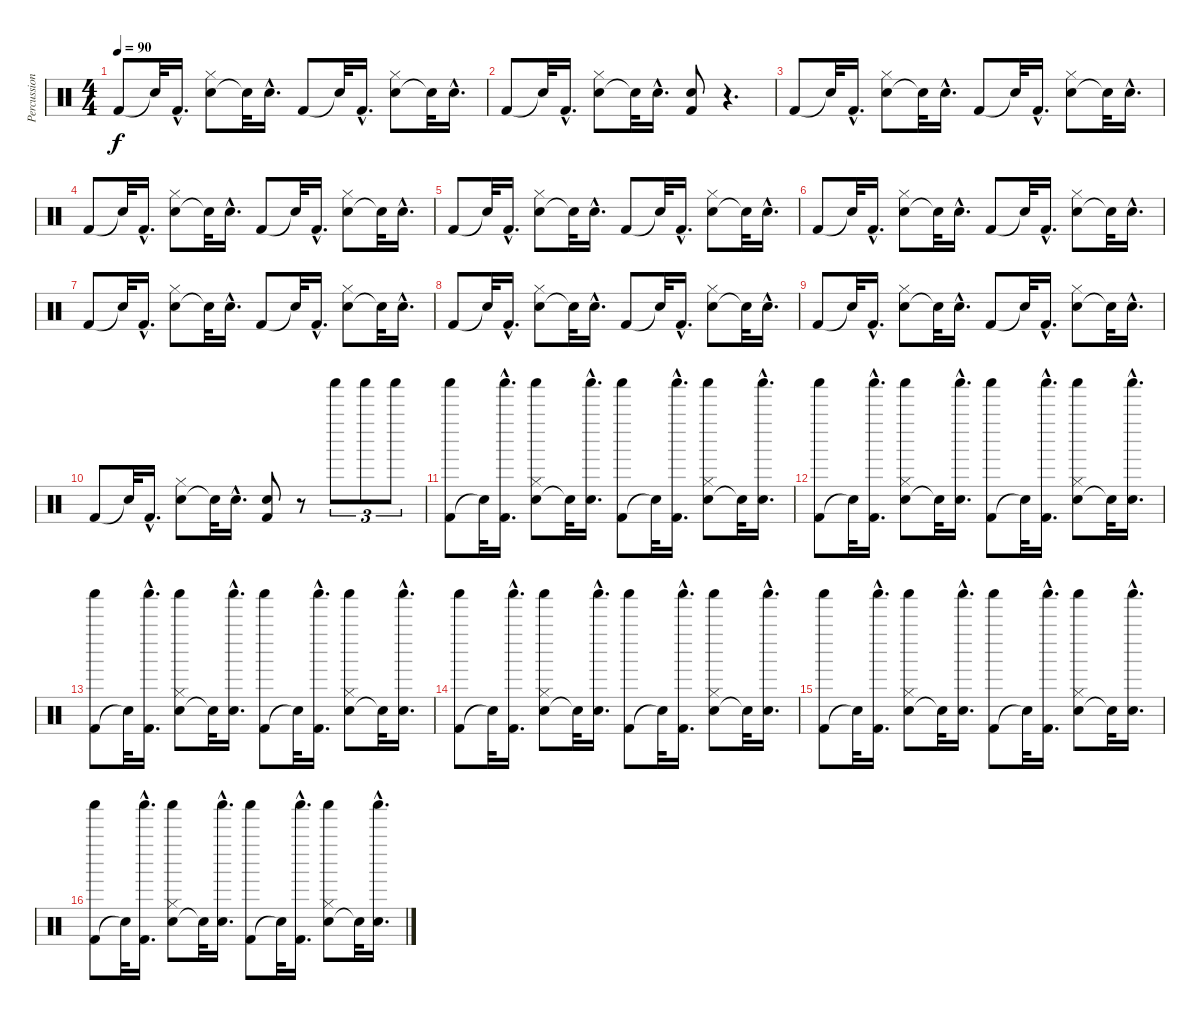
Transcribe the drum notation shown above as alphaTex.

\track ("Percussions" "Percussion") {instrument percussion}
\staff {score}
\articulation defaults
\ts (4 4)
\tempo 90
\clef neutral
\ks c "Kick (hit) 2".8{dy f} "Snare (hit)"{t}.32 "Kick (hit) 2"{hac}.16{d}
("Snare (hit) 2" "Hi-Hat (closed)").8 "Snare (hit)"{t}.32 "Snare (hit) 2"{hac}.16{d} "Kick (hit) 2".8 "Snare (hit)"{t}.32 "Kick (hit) 2"{hac}.16{d} ("Snare (hit) 2" "Hi-Hat (closed)").8 "Snare (hit)"{t}.32 "Snare (hit) 2"{hac}.16{d} |
"Kick (hit) 2".8 "Snare (hit)"{t}.32 "Kick (hit) 2"{hac}.16{d} ("Snare (hit) 2" "Hi-Hat (closed)").8 "Snare (hit)"{t}.32 "Snare (hit) 2"{hac}.16{d} ("Kick (hit) 2" "Snare (hit) 2").8 r.4{d} |
"Kick (hit) 2".8 "Snare (hit)"{t}.32 "Kick (hit) 2"{hac}.16{d} ("Snare (hit) 2" "Hi-Hat (closed)").8 "Snare (hit)"{t}.32 "Snare (hit) 2"{hac}.16{d} "Kick (hit) 2".8 "Snare (hit)"{t}.32 "Kick (hit) 2"{hac}.16{d} ("Snare (hit) 2" "Hi-Hat (closed)").8 "Snare (hit)"{t}.32 "Snare (hit) 2"{hac}.16{d} |
"Kick (hit) 2".8 "Snare (hit)"{t}.32 "Kick (hit) 2"{hac}.16{d} ("Snare (hit) 2" "Hi-Hat (closed)").8 "Snare (hit)"{t}.32 "Snare (hit) 2"{hac}.16{d} "Kick (hit) 2".8 "Snare (hit)"{t}.32 "Kick (hit) 2"{hac}.16{d} ("Snare (hit) 2" "Hi-Hat (closed)").8 "Snare (hit)"{t}.32 "Snare (hit) 2"{hac}.16{d} |
"Kick (hit) 2".8 "Snare (hit)"{t}.32 "Kick (hit) 2"{hac}.16{d} ("Snare (hit) 2" "Hi-Hat (closed)").8 "Snare (hit)"{t}.32 "Snare (hit) 2"{hac}.16{d} "Kick (hit) 2".8 "Snare (hit)"{t}.32 "Kick (hit) 2"{hac}.16{d} ("Snare (hit) 2" "Hi-Hat (closed)").8 "Snare (hit)"{t}.32 "Snare (hit) 2"{hac}.16{d} |
"Kick (hit) 2".8 "Snare (hit)"{t}.32 "Kick (hit) 2"{hac}.16{d} ("Snare (hit) 2" "Hi-Hat (closed)").8 "Snare (hit)"{t}.32 "Snare (hit) 2"{hac}.16{d} "Kick (hit) 2".8 "Snare (hit)"{t}.32 "Kick (hit) 2"{hac}.16{d} ("Snare (hit) 2" "Hi-Hat (closed)").8 "Snare (hit)"{t}.32 "Snare (hit) 2"{hac}.16{d} |
"Kick (hit) 2".8 "Snare (hit)"{t}.32 "Kick (hit) 2"{hac}.16{d} ("Snare (hit) 2" "Hi-Hat (closed)").8 "Snare (hit)"{t}.32 "Snare (hit) 2"{hac}.16{d} "Kick (hit) 2".8 "Snare (hit)"{t}.32 "Kick (hit) 2"{hac}.16{d} ("Snare (hit) 2" "Hi-Hat (closed)").8 "Snare (hit)"{t}.32 "Snare (hit) 2"{hac}.16{d} |
"Kick (hit) 2".8 "Snare (hit)"{t}.32 "Kick (hit) 2"{hac}.16{d} ("Snare (hit) 2" "Hi-Hat (closed)").8 "Snare (hit)"{t}.32 "Snare (hit) 2"{hac}.16{d} "Kick (hit) 2".8 "Snare (hit)"{t}.32 "Kick (hit) 2"{hac}.16{d} ("Snare (hit) 2" "Hi-Hat (closed)").8 "Snare (hit)"{t}.32 "Snare (hit) 2"{hac}.16{d} |
"Kick (hit) 2".8 "Snare (hit)"{t}.32 "Kick (hit) 2"{hac}.16{d} ("Snare (hit) 2" "Hi-Hat (closed)").8 "Snare (hit)"{t}.32 "Snare (hit) 2"{hac}.16{d} "Kick (hit) 2".8 "Snare (hit)"{t}.32 "Kick (hit) 2"{hac}.16{d} ("Snare (hit) 2" "Hi-Hat (closed)").8 "Snare (hit)"{t}.32 "Snare (hit) 2"{hac}.16{d} |
"Kick (hit) 2".8 "Snare (hit)"{t}.32 "Kick (hit) 2"{hac}.16{d} ("Snare (hit) 2" "Hi-Hat (closed)").8 "Snare (hit)"{t}.32 "Snare (hit) 2"{hac}.16{d} ("Kick (hit) 2" "Snare (hit) 2").8 r.8 "Shaker (hit)".8{tu (3 2)} "Shaker (hit)".8{tu (3 2)} "Shaker (hit)".8{tu (3 2)} |
("Kick (hit) 2" "Shaker (hit)").8 "Snare (hit)"{t}.32 ("Kick (hit) 2"{hac} "Shaker (hit)"{hac}).16{d} ("Snare (hit) 2" "Shaker (hit)" "Hi-Hat (closed)").8 "Snare (hit)"{t}.32 ("Snare (hit) 2"{hac} "Shaker (hit)"{hac}).16{d} ("Kick (hit) 2" "Shaker (hit)").8 "Snare (hit)"{t}.32 ("Kick (hit) 2"{hac} "Shaker (hit)"{hac}).16{d} ("Snare (hit) 2" "Shaker (hit)" "Hi-Hat (closed)").8 "Snare (hit)"{t}.32 ("Snare (hit) 2"{hac} "Shaker (hit)"{hac}).16{d} |
("Kick (hit) 2" "Shaker (hit)").8 "Snare (hit)"{t}.32 ("Kick (hit) 2"{hac} "Shaker (hit)"{hac}).16{d} ("Snare (hit) 2" "Shaker (hit)" "Hi-Hat (closed)").8 "Snare (hit)"{t}.32 ("Snare (hit) 2"{hac} "Shaker (hit)"{hac}).16{d} ("Kick (hit) 2" "Shaker (hit)").8 "Snare (hit)"{t}.32 ("Kick (hit) 2"{hac} "Shaker (hit)"{hac}).16{d} ("Snare (hit) 2" "Shaker (hit)" "Hi-Hat (closed)").8 "Snare (hit)"{t}.32 ("Snare (hit) 2"{hac} "Shaker (hit)"{hac}).16{d} |
("Kick (hit) 2" "Shaker (hit)").8 "Snare (hit)"{t}.32 ("Kick (hit) 2"{hac} "Shaker (hit)"{hac}).16{d} ("Snare (hit) 2" "Shaker (hit)" "Hi-Hat (closed)").8 "Snare (hit)"{t}.32 ("Snare (hit) 2"{hac} "Shaker (hit)"{hac}).16{d} ("Kick (hit) 2" "Shaker (hit)").8 "Snare (hit)"{t}.32 ("Kick (hit) 2"{hac} "Shaker (hit)"{hac}).16{d} ("Snare (hit) 2" "Shaker (hit)" "Hi-Hat (closed)").8 "Snare (hit)"{t}.32 ("Snare (hit) 2"{hac} "Shaker (hit)"{hac}).16{d} |
("Kick (hit) 2" "Shaker (hit)").8 "Snare (hit)"{t}.32 ("Kick (hit) 2"{hac} "Shaker (hit)"{hac}).16{d} ("Snare (hit) 2" "Shaker (hit)" "Hi-Hat (closed)").8 "Snare (hit)"{t}.32 ("Snare (hit) 2"{hac} "Shaker (hit)"{hac}).16{d} ("Kick (hit) 2" "Shaker (hit)").8 "Snare (hit)"{t}.32 ("Kick (hit) 2"{hac} "Shaker (hit)"{hac}).16{d} ("Snare (hit) 2" "Shaker (hit)" "Hi-Hat (closed)").8 "Snare (hit)"{t}.32 ("Snare (hit) 2"{hac} "Shaker (hit)"{hac}).16{d} |
("Kick (hit) 2" "Shaker (hit)").8 "Snare (hit)"{t}.32 ("Kick (hit) 2"{hac} "Shaker (hit)"{hac}).16{d} ("Snare (hit) 2" "Shaker (hit)" "Hi-Hat (closed)").8 "Snare (hit)"{t}.32 ("Snare (hit) 2"{hac} "Shaker (hit)"{hac}).16{d} ("Kick (hit) 2" "Shaker (hit)").8 "Snare (hit)"{t}.32 ("Kick (hit) 2"{hac} "Shaker (hit)"{hac}).16{d} ("Snare (hit) 2" "Shaker (hit)" "Hi-Hat (closed)").8 "Snare (hit)"{t}.32 ("Snare (hit) 2"{hac} "Shaker (hit)"{hac}).16{d} |
("Kick (hit) 2" "Shaker (hit)").8 "Snare (hit)"{t}.32 ("Kick (hit) 2"{hac} "Shaker (hit)"{hac}).16{d} ("Snare (hit) 2" "Shaker (hit)" "Hi-Hat (closed)").8 "Snare (hit)"{t}.32 ("Snare (hit) 2"{hac} "Shaker (hit)"{hac}).16{d} ("Kick (hit) 2" "Shaker (hit)").8 "Snare (hit)"{t}.32 ("Kick (hit) 2"{hac} "Shaker (hit)"{hac}).16{d} ("Snare (hit) 2" "Shaker (hit)" "Hi-Hat (closed)").8 "Snare (hit)"{t}.32 ("Snare (hit) 2"{hac} "Shaker (hit)"{hac}).16{d}
